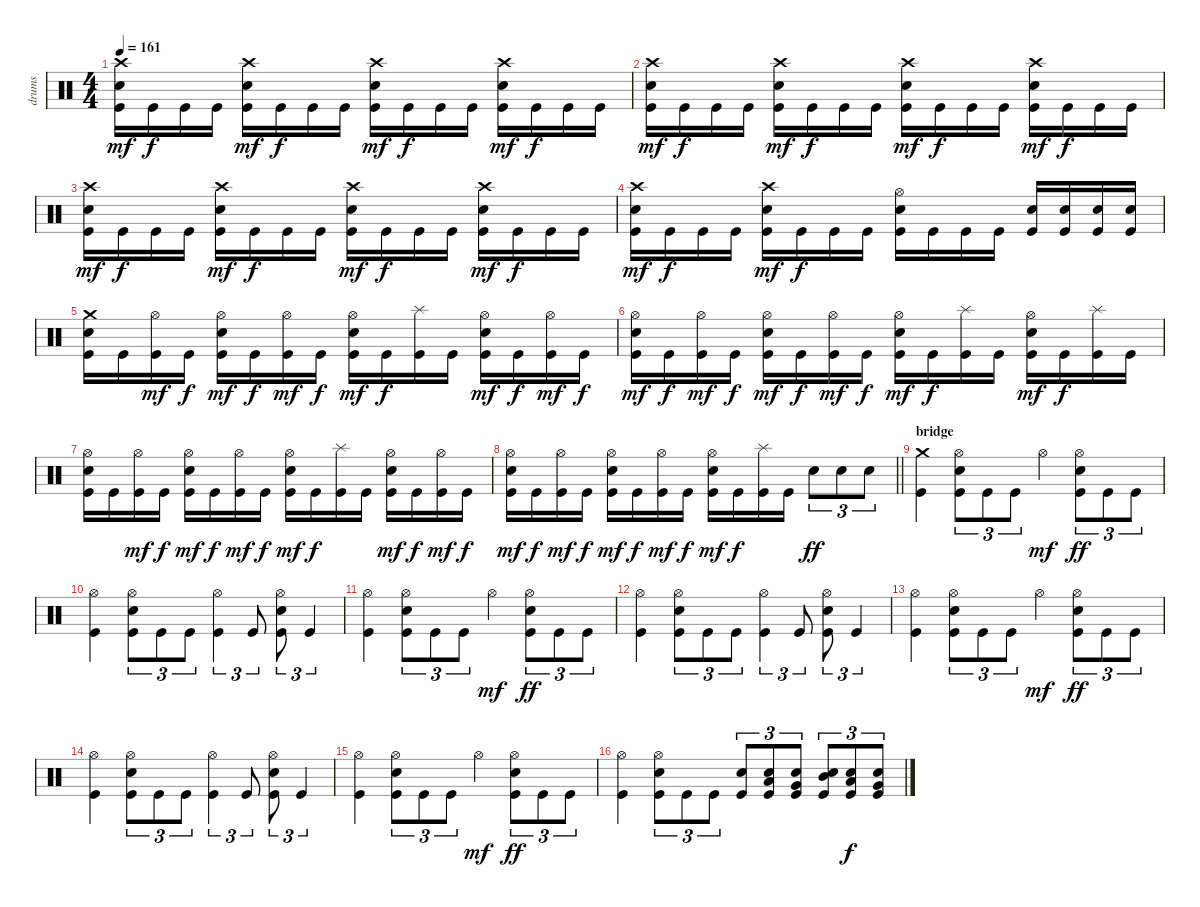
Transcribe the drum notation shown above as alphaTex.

\track ("drums" "drums") {instrument percussion}
\staff {score}
\articulation defaults
\ts (4 4)
\tempo 161
\clef neutral
\ks c
("Crash high (hit)" "Electric Snare (hit)" "Kick (hit)").16{dy mf} "Kick (hit)".16{dy f} "Kick (hit)".16 "Kick (hit)".16 ("Crash high (hit)" "Electric Snare (hit)" "Kick (hit)").16{dy mf} "Kick (hit)".16{dy f} "Kick (hit)".16 "Kick (hit)".16 ("Crash high (hit)" "Electric Snare (hit)" "Kick (hit)").16{dy mf} "Kick (hit)".16{dy f} "Kick (hit)".16 "Kick (hit)".16 ("Crash high (hit)" "Electric Snare (hit)" "Kick (hit)").16{dy mf} "Kick (hit)".16{dy f} "Kick (hit)".16 "Kick (hit)".16 |
("Crash high (hit)" "Electric Snare (hit)" "Kick (hit)").16{dy mf} "Kick (hit)".16{dy f} "Kick (hit)".16 "Kick (hit)".16 ("Crash high (hit)" "Electric Snare (hit)" "Kick (hit)").16{dy mf} "Kick (hit)".16{dy f} "Kick (hit)".16 "Kick (hit)".16 ("Crash high (hit)" "Electric Snare (hit)" "Kick (hit)").16{dy mf} "Kick (hit)".16{dy f} "Kick (hit)".16 "Kick (hit)".16 ("Crash high (hit)" "Electric Snare (hit)" "Kick (hit)").16{dy mf} "Kick (hit)".16{dy f} "Kick (hit)".16 "Kick (hit)".16 |
("Crash high (hit)" "Electric Snare (hit)" "Kick (hit)").16{dy mf} "Kick (hit)".16{dy f} "Kick (hit)".16 "Kick (hit)".16 ("Crash high (hit)" "Electric Snare (hit)" "Kick (hit)").16{dy mf} "Kick (hit)".16{dy f} "Kick (hit)".16 "Kick (hit)".16 ("Crash high (hit)" "Electric Snare (hit)" "Kick (hit)").16{dy mf} "Kick (hit)".16{dy f} "Kick (hit)".16 "Kick (hit)".16 ("Crash high (hit)" "Electric Snare (hit)" "Kick (hit)").16{dy mf} "Kick (hit)".16{dy f} "Kick (hit)".16 "Kick (hit)".16 |
("Crash high (hit)" "Electric Snare (hit)" "Kick (hit)").16{dy mf} "Kick (hit)".16{dy f} "Kick (hit)".16 "Kick (hit)".16 ("Crash high (hit)" "Electric Snare (hit)" "Kick (hit)").16{dy mf} "Kick (hit)".16{dy f} "Kick (hit)".16 "Kick (hit)".16 ("Hi-Hat (open)" "Electric Snare (hit)" "Kick (hit)").16 "Kick (hit)".16 "Kick (hit)".16 "Kick (hit)".16 ("Electric Snare (hit)" "Kick (hit)").16 ("Electric Snare (hit)" "Kick (hit)").16 ("Electric Snare (hit)" "Kick (hit)").16 ("Electric Snare (hit)" "Kick (hit)").16 |
("Crash medium (hit)" "Electric Snare (hit)" "Kick (hit)").16 "Kick (hit)".16 ("Hi-Hat (open)" "Kick (hit)").16{dy mf} "Kick (hit)".16{dy f} ("Hi-Hat (open)" "Electric Snare (hit)" "Kick (hit)").16{dy mf} "Kick (hit)".16{dy f} ("Hi-Hat (open)" "Kick (hit)").16{dy mf} "Kick (hit)".16{dy f} ("Hi-Hat (open)" "Electric Snare (hit)" "Kick (hit)").16{dy mf} "Kick (hit)".16{dy f} ("Splash (hit)" "Kick (hit)").16 "Kick (hit)".16 ("Hi-Hat (open)" "Electric Snare (hit)" "Kick (hit)").16{dy mf} "Kick (hit)".16{dy f} ("Hi-Hat (open)" "Kick (hit)").16{dy mf} "Kick (hit)".16{dy f} |
("Hi-Hat (open)" "Electric Snare (hit)" "Kick (hit)").16{dy mf} "Kick (hit)".16{dy f} ("Hi-Hat (open)" "Kick (hit)").16{dy mf} "Kick (hit)".16{dy f} ("Hi-Hat (open)" "Electric Snare (hit)" "Kick (hit)").16{dy mf} "Kick (hit)".16{dy f} ("Hi-Hat (open)" "Kick (hit)").16{dy mf} "Kick (hit)".16{dy f} ("Hi-Hat (open)" "Electric Snare (hit)" "Kick (hit)").16{dy mf} "Kick (hit)".16{dy f} ("Splash (hit)" "Kick (hit)").16 "Kick (hit)".16 ("Hi-Hat (open)" "Electric Snare (hit)" "Kick (hit)").16{dy mf} "Kick (hit)".16{dy f} ("Splash (hit)" "Kick (hit)").16 "Kick (hit)".16 |
("Hi-Hat (open)" "Electric Snare (hit)" "Kick (hit)").16 "Kick (hit)".16 ("Hi-Hat (open)" "Kick (hit)").16{dy mf} "Kick (hit)".16{dy f} ("Hi-Hat (open)" "Electric Snare (hit)" "Kick (hit)").16{dy mf} "Kick (hit)".16{dy f} ("Hi-Hat (open)" "Kick (hit)").16{dy mf} "Kick (hit)".16{dy f} ("Hi-Hat (open)" "Electric Snare (hit)" "Kick (hit)").16{dy mf} "Kick (hit)".16{dy f} ("Splash (hit)" "Kick (hit)").16 "Kick (hit)".16 ("Hi-Hat (open)" "Electric Snare (hit)" "Kick (hit)").16{dy mf} "Kick (hit)".16{dy f} ("Hi-Hat (open)" "Kick (hit)").16{dy mf} "Kick (hit)".16{dy f} |
\barLineRight lightlight
("Hi-Hat (open)" "Electric Snare (hit)" "Kick (hit)").16{dy mf} "Kick (hit)".16{dy f} ("Hi-Hat (open)" "Kick (hit)").16{dy mf} "Kick (hit)".16{dy f} ("Hi-Hat (open)" "Electric Snare (hit)" "Kick (hit)").16{dy mf} "Kick (hit)".16{dy f} ("Hi-Hat (open)" "Kick (hit)").16{dy mf} "Kick (hit)".16{dy f} ("Hi-Hat (open)" "Electric Snare (hit)" "Kick (hit)").16{dy mf} "Kick (hit)".16{dy f} ("Splash (hit)" "Kick (hit)").16 "Kick (hit)".16 "Electric Snare (hit)".8{tu (3 2) dy ff} "Electric Snare (hit)".8{tu (3 2)} "Electric Snare (hit)".8{tu (3 2)} |
\section ("" "bridge")
("Crash medium (hit)" "Kick (hit)").4 ("Hi-Hat (open)" "Electric Snare (hit)" "Kick (hit)").8{tu (3 2)} "Kick (hit)".8{tu (3 2)} "Kick (hit)".8{tu (3 2)} "Hi-Hat (open)".4{dy mf} ("Hi-Hat (open)" "Electric Snare (hit)" "Kick (hit)").8{tu (3 2) dy ff} "Kick (hit)".8{tu (3 2)} "Kick (hit)".8{tu (3 2)} |
("Hi-Hat (open)" "Kick (hit)").4 ("Hi-Hat (open)" "Electric Snare (hit)" "Kick (hit)").8{tu (3 2)} "Kick (hit)".8{tu (3 2)} "Kick (hit)".8{tu (3 2)} ("Hi-Hat (open)" "Kick (hit)").4{tu (3 2)} "Kick (hit)".8{tu (3 2)} ("Hi-Hat (open)" "Electric Snare (hit)" "Kick (hit)").8{tu (3 2)} "Kick (hit)".4{tu (3 2)} |
("Hi-Hat (open)" "Kick (hit)").4 ("Hi-Hat (open)" "Electric Snare (hit)" "Kick (hit)").8{tu (3 2)} "Kick (hit)".8{tu (3 2)} "Kick (hit)".8{tu (3 2)} "Hi-Hat (open)".4{dy mf} ("Hi-Hat (open)" "Electric Snare (hit)" "Kick (hit)").8{tu (3 2) dy ff} "Kick (hit)".8{tu (3 2)} "Kick (hit)".8{tu (3 2)} |
("Hi-Hat (open)" "Kick (hit)").4 ("Hi-Hat (open)" "Electric Snare (hit)" "Kick (hit)").8{tu (3 2)} "Kick (hit)".8{tu (3 2)} "Kick (hit)".8{tu (3 2)} ("Hi-Hat (open)" "Kick (hit)").4{tu (3 2)} "Kick (hit)".8{tu (3 2)} ("Hi-Hat (open)" "Electric Snare (hit)" "Kick (hit)").8{tu (3 2)} "Kick (hit)".4{tu (3 2)} |
("Hi-Hat (open)" "Kick (hit)").4 ("Hi-Hat (open)" "Electric Snare (hit)" "Kick (hit)").8{tu (3 2)} "Kick (hit)".8{tu (3 2)} "Kick (hit)".8{tu (3 2)} "Hi-Hat (open)".4{dy mf} ("Hi-Hat (open)" "Electric Snare (hit)" "Kick (hit)").8{tu (3 2) dy ff} "Kick (hit)".8{tu (3 2)} "Kick (hit)".8{tu (3 2)} |
("Hi-Hat (open)" "Kick (hit)").4 ("Hi-Hat (open)" "Electric Snare (hit)" "Kick (hit)").8{tu (3 2)} "Kick (hit)".8{tu (3 2)} "Kick (hit)".8{tu (3 2)} ("Hi-Hat (open)" "Kick (hit)").4{tu (3 2)} "Kick (hit)".8{tu (3 2)} ("Hi-Hat (open)" "Electric Snare (hit)" "Kick (hit)").8{tu (3 2)} "Kick (hit)".4{tu (3 2)} |
("Hi-Hat (open)" "Kick (hit)").4 ("Hi-Hat (open)" "Electric Snare (hit)" "Kick (hit)").8{tu (3 2)} "Kick (hit)".8{tu (3 2)} "Kick (hit)".8{tu (3 2)} "Hi-Hat (open)".4{dy mf} ("Hi-Hat (open)" "Electric Snare (hit)" "Kick (hit)").8{tu (3 2) dy ff} "Kick (hit)".8{tu (3 2)} "Kick (hit)".8{tu (3 2)} |
("Hi-Hat (open)" "Kick (hit)").4 ("Hi-Hat (open)" "Electric Snare (hit)" "Kick (hit)").8{tu (3 2)} "Kick (hit)".8{tu (3 2)} "Kick (hit)".8{tu (3 2)} ("Electric Snare (hit)" "Kick (hit)").8{tu (3 2)} ("Electric Snare (hit)" "Low Tom (hit)" "Kick (hit)").8{tu (3 2)} ("Electric Snare (hit)" "Very Low Tom (hit)" "Kick (hit)").8{tu (3 2)} ("Electric Snare (hit)" "Mid Tom (hit)" "Kick (hit)").8{tu (3 2)} ("Electric Snare (hit)" "Low Tom (hit)" "Kick (hit)").8{tu (3 2) dy f} ("Electric Snare (hit)" "Very Low Tom (hit)" "Kick (hit)").8{tu (3 2)}
